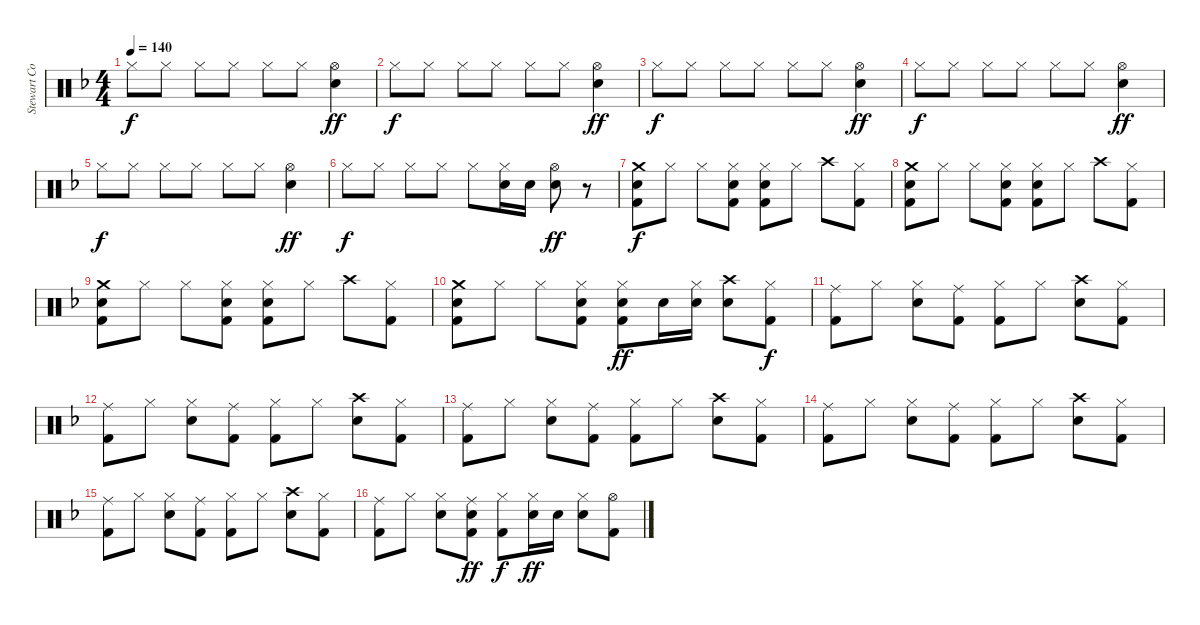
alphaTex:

\track ("Stewart Copeland" "Stewart Co") {instrument percussion}
\staff {score}
\articulation defaults
\ts (4 4)
\tempo 140
\clef neutral
\ks f "Hi-Hat (closed)".8{dy f} "Hi-Hat (closed)".8 "Hi-Hat (closed)".8 "Hi-Hat (closed)".8 "Hi-Hat (closed)".8 "Hi-Hat (closed)".8
("Hi-Hat (open)" "Snare (hit) 2").4{dy ff} |
"Hi-Hat (closed)".8{dy f} "Hi-Hat (closed)".8 "Hi-Hat (closed)".8 "Hi-Hat (closed)".8 "Hi-Hat (closed)".8 "Hi-Hat (closed)".8 ("Hi-Hat (open)" "Snare (hit) 2").4{dy ff} |
"Hi-Hat (closed)".8{dy f} "Hi-Hat (closed)".8 "Hi-Hat (closed)".8 "Hi-Hat (closed)".8 "Hi-Hat (closed)".8 "Hi-Hat (closed)".8 ("Hi-Hat (open)" "Snare (hit) 2").4{dy ff} |
"Hi-Hat (closed)".8{dy f} "Hi-Hat (closed)".8 "Hi-Hat (closed)".8 "Hi-Hat (closed)".8 "Hi-Hat (closed)".8 "Hi-Hat (closed)".8 ("Hi-Hat (open)" "Snare (hit) 2").4{dy ff} |
"Hi-Hat (closed)".8{dy f} "Hi-Hat (closed)".8 "Hi-Hat (closed)".8 "Hi-Hat (closed)".8 "Hi-Hat (closed)".8 "Hi-Hat (closed)".8 ("Hi-Hat (open)" "Snare (hit) 2").4{dy ff} |
"Hi-Hat (closed)".8{dy f} "Hi-Hat (closed)".8 "Hi-Hat (closed)".8 "Hi-Hat (closed)".8 "Hi-Hat (closed)".8 ("Hi-Hat (closed)" "Snare (hit) 2").16 "Snare (hit) 2".16 ("Hi-Hat (open)" "Snare (hit) 2").8{dy ff} r.8 |
("Crash medium (hit)" "Snare (hit) 2" "Kick (hit) 2").8{dy f} "Hi-Hat (closed)".8 "Hi-Hat (closed)".8 ("Hi-Hat (closed)" "Snare (hit) 2" "Kick (hit) 2").8 ("Hi-Hat (closed)" "Snare (hit) 2" "Kick (hit) 2").8 "Hi-Hat (closed)".8 "Crash high (hit)".8 ("Hi-Hat (closed)" "Kick (hit) 2").8 |
("Crash medium (hit)" "Snare (hit) 2" "Kick (hit) 2").8 "Hi-Hat (closed)".8 "Hi-Hat (closed)".8 ("Hi-Hat (closed)" "Snare (hit) 2" "Kick (hit) 2").8 ("Hi-Hat (closed)" "Snare (hit) 2" "Kick (hit) 2").8 "Hi-Hat (closed)".8 "Crash high (hit)".8 ("Hi-Hat (closed)" "Kick (hit) 2").8 |
("Crash medium (hit)" "Snare (hit) 2" "Kick (hit) 2").8 "Hi-Hat (closed)".8 "Hi-Hat (closed)".8 ("Hi-Hat (closed)" "Snare (hit) 2" "Kick (hit) 2").8 ("Hi-Hat (closed)" "Snare (hit) 2" "Kick (hit) 2").8 "Hi-Hat (closed)".8 "Crash high (hit)".8 ("Hi-Hat (closed)" "Kick (hit) 2").8 |
("Crash medium (hit)" "Snare (hit) 2" "Kick (hit) 2").8 "Hi-Hat (closed)".8 "Hi-Hat (closed)".8 ("Hi-Hat (closed)" "Snare (hit) 2" "Kick (hit) 2").8 ("Hi-Hat (closed)" "Snare (hit) 2" "Kick (hit) 2").8{dy ff} "Snare (hit) 2".16 ("Hi-Hat (closed)" "Snare (hit) 2").16 ("Crash high (hit)" "Snare (hit) 2").8 ("Hi-Hat (closed)" "Kick (hit) 2").8{dy f} |
("Ride (middle)" "Kick (hit) 2").8 "Hi-Hat (closed)".8 ("Hi-Hat (closed)" "Snare (hit) 2").8 ("Ride (middle)" "Kick (hit) 2").8 ("Hi-Hat (closed)" "Kick (hit) 2").8 "Hi-Hat (closed)".8 ("Crash high (hit)" "Snare (hit) 2").8 ("Hi-Hat (closed)" "Kick (hit) 2").8 |
("Ride (middle)" "Kick (hit) 2").8 "Hi-Hat (closed)".8 ("Hi-Hat (closed)" "Snare (hit) 2").8 ("Ride (middle)" "Kick (hit) 2").8 ("Hi-Hat (closed)" "Kick (hit) 2").8 "Hi-Hat (closed)".8 ("Crash high (hit)" "Snare (hit) 2").8 ("Hi-Hat (closed)" "Kick (hit) 2").8 |
("Ride (middle)" "Kick (hit) 2").8 "Hi-Hat (closed)".8 ("Hi-Hat (closed)" "Snare (hit) 2").8 ("Ride (middle)" "Kick (hit) 2").8 ("Hi-Hat (closed)" "Kick (hit) 2").8 "Hi-Hat (closed)".8 ("Crash high (hit)" "Snare (hit) 2").8 ("Hi-Hat (closed)" "Kick (hit) 2").8 |
("Ride (middle)" "Kick (hit) 2").8 "Hi-Hat (closed)".8 ("Hi-Hat (closed)" "Snare (hit) 2").8 ("Ride (middle)" "Kick (hit) 2").8 ("Hi-Hat (closed)" "Kick (hit) 2").8 "Hi-Hat (closed)".8 ("Crash high (hit)" "Snare (hit) 2").8 ("Hi-Hat (closed)" "Kick (hit) 2").8 |
("Ride (middle)" "Kick (hit) 2").8 "Hi-Hat (closed)".8 ("Hi-Hat (closed)" "Snare (hit) 2").8 ("Ride (middle)" "Kick (hit) 2").8 ("Hi-Hat (closed)" "Kick (hit) 2").8 "Hi-Hat (closed)".8 ("Crash high (hit)" "Snare (hit) 2").8 ("Hi-Hat (closed)" "Kick (hit) 2").8 |
("Ride (middle)" "Kick (hit) 2").8 "Hi-Hat (closed)".8 ("Hi-Hat (closed)" "Snare (hit) 2").8 ("Ride (middle)" "Snare (hit) 2" "Kick (hit) 2").8{dy ff} ("Hi-Hat (closed)" "Kick (hit) 2").8{dy f} ("Hi-Hat (closed)" "Snare (hit) 2").16{dy ff} "Snare (hit) 2".16 ("Hi-Hat (closed)" "Snare (hit) 2").8 ("Hi-Hat (open)" "Kick (hit) 2").8
